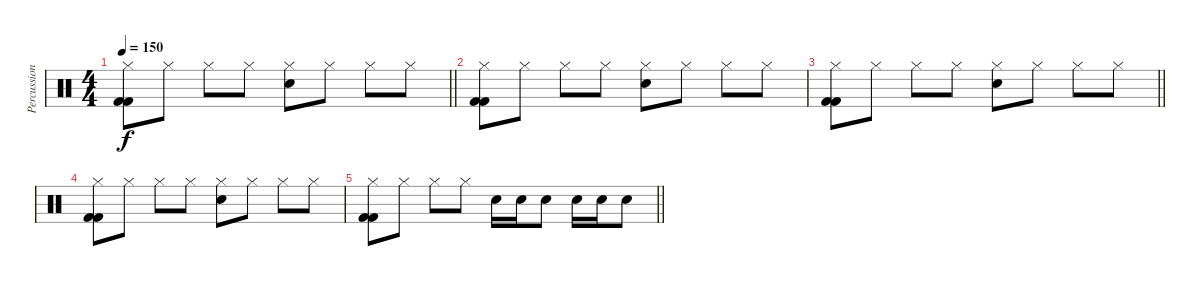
\track ("Percussion" "Percussion") {instrument percussion}
\staff {score}
\articulation defaults
\ts (4 4)
\tempo 150
\clef neutral
\barLineRight lightlight
\ks c
("Kick (hit) 2" "Kick (hit) 2" "Hi-Hat (closed)").8{dy f} "Hi-Hat (closed)".8 "Hi-Hat (closed)".8 "Hi-Hat (closed)".8 ("Electric Snare (hit)" "Hi-Hat (closed)").8 "Hi-Hat (closed)".8 "Hi-Hat (closed)".8 "Hi-Hat (closed)".8 |
("Kick (hit) 2" "Kick (hit) 2" "Hi-Hat (closed)").8 "Hi-Hat (closed)".8 "Hi-Hat (closed)".8 "Hi-Hat (closed)".8 ("Electric Snare (hit)" "Hi-Hat (closed)").8 "Hi-Hat (closed)".8 "Hi-Hat (closed)".8 "Hi-Hat (closed)".8 |
\barLineRight lightlight
("Kick (hit) 2" "Kick (hit) 2" "Hi-Hat (closed)").8 "Hi-Hat (closed)".8 "Hi-Hat (closed)".8 "Hi-Hat (closed)".8 ("Electric Snare (hit)" "Hi-Hat (closed)").8 "Hi-Hat (closed)".8 "Hi-Hat (closed)".8 "Hi-Hat (closed)".8 |
("Kick (hit) 2" "Kick (hit) 2" "Hi-Hat (closed)").8 "Hi-Hat (closed)".8 "Hi-Hat (closed)".8 "Hi-Hat (closed)".8 ("Electric Snare (hit)" "Hi-Hat (closed)").8 "Hi-Hat (closed)".8 "Hi-Hat (closed)".8 "Hi-Hat (closed)".8 |
\barLineRight lightlight
("Kick (hit) 2" "Kick (hit) 2" "Hi-Hat (closed)").8 "Hi-Hat (closed)".8 "Hi-Hat (closed)".8 "Hi-Hat (closed)".8 "Electric Snare (hit)".16 "Electric Snare (hit)".16 "Electric Snare (hit)".8 "Electric Snare (hit)".16 "Electric Snare (hit)".16 "Electric Snare (hit)".8
